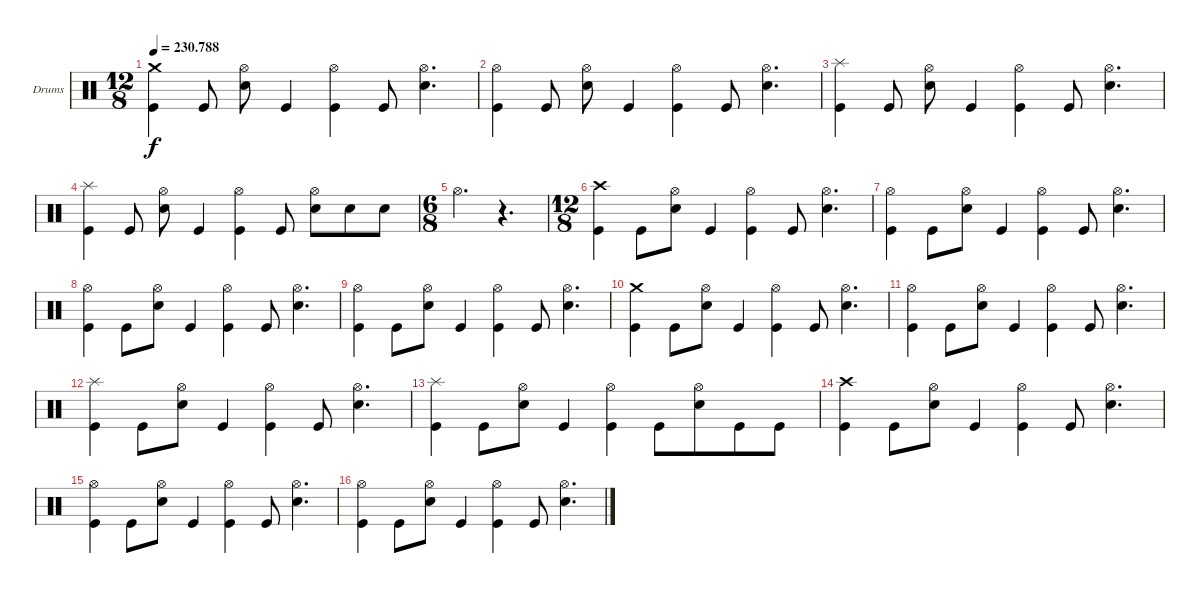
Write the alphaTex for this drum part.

\bracketExtendMode groupsimilarinstruments
\firstSystemTrackNameOrientation horizontal
\otherSystemsTrackNameOrientation horizontal
\track ("Ударные" "Drums") {instrument percussion}
\staff {score}
\articulation defaults
\ts (12 8)
\tempo
230.788
\accidentals auto
\clef neutral
\ottava regular
\simile none
\ks c
("Kick (hit)" "Crash medium (hit)").4{dy f} "Kick (hit)".8 ("Snare (hit) 2" "Hi-Hat (open)").8 "Kick (hit)".4 ("Kick (hit)" "Hi-Hat (open)").4 "Kick (hit)".8 ("Snare (hit) 2" "Hi-Hat (open)").4{d} |
("Hi-Hat (open)" "Kick (hit)").4 "Kick (hit)".8 ("Hi-Hat (open)" "Snare (hit) 2").8 "Kick (hit)".4 ("Hi-Hat (open)" "Kick (hit)").4 "Kick (hit)".8 ("Hi-Hat (open)" "Snare (hit) 2").4{d} |
("Splash (hit)" "Kick (hit)").4 "Kick (hit)".8 ("Hi-Hat (open)" "Snare (hit) 2").8 "Kick (hit)".4 ("Hi-Hat (open)" "Kick (hit)").4 "Kick (hit)".8 ("Hi-Hat (open)" "Snare (hit) 2").4{d} |
("Splash (hit)" "Kick (hit)").4 "Kick (hit)".8 ("Hi-Hat (open)" "Snare (hit) 2").8 "Kick (hit)".4 ("Hi-Hat (open)" "Kick (hit)").4 "Kick (hit)".8 ("Snare (hit) 2" "Hi-Hat (open)").8 "Snare (hit) 2".8 "Snare (hit) 2".8 |
\ts (6 8)
\beaming (8 2 2 2 2)
"Hi-Hat (open)".4{d} r.4{d} |
\ts (12 8)
\beaming (8 2 2 2 6)
("Kick (hit)" "Crash high (hit)").4 "Kick (hit)".8 ("Snare (hit) 2" "Hi-Hat (open)").8 "Kick (hit)".4 ("Kick (hit)" "Hi-Hat (open)").4 "Kick (hit)".8 ("Snare (hit) 2" "Hi-Hat (open)").4{d} |
("Hi-Hat (open)" "Kick (hit)").4 "Kick (hit)".8 ("Hi-Hat (open)" "Snare (hit) 2").8 "Kick (hit)".4 ("Hi-Hat (open)" "Kick (hit)").4 "Kick (hit)".8 ("Hi-Hat (open)" "Snare (hit) 2").4{d} |
("Hi-Hat (open)" "Kick (hit)").4 "Kick (hit)".8 ("Hi-Hat (open)" "Snare (hit) 2").8 "Kick (hit)".4 ("Hi-Hat (open)" "Kick (hit)").4 "Kick (hit)".8 ("Hi-Hat (open)" "Snare (hit) 2").4{d} |
("Hi-Hat (open)" "Kick (hit)").4 "Kick (hit)".8 ("Hi-Hat (open)" "Snare (hit) 2").8 "Kick (hit)".4 ("Hi-Hat (open)" "Kick (hit)").4 "Kick (hit)".8 ("Hi-Hat (open)" "Snare (hit) 2").4{d} |
("Kick (hit)" "Crash medium (hit)").4 "Kick (hit)".8 ("Snare (hit) 2" "Hi-Hat (open)").8 "Kick (hit)".4 ("Kick (hit)" "Hi-Hat (open)").4 "Kick (hit)".8 ("Snare (hit) 2" "Hi-Hat (open)").4{d} |
("Hi-Hat (open)" "Kick (hit)").4 "Kick (hit)".8 ("Hi-Hat (open)" "Snare (hit) 2").8 "Kick (hit)".4 ("Hi-Hat (open)" "Kick (hit)").4 "Kick (hit)".8 ("Hi-Hat (open)" "Snare (hit) 2").4{d} |
("Splash (hit)" "Kick (hit)").4 "Kick (hit)".8 ("Hi-Hat (open)" "Snare (hit) 2").8 "Kick (hit)".4 ("Hi-Hat (open)" "Kick (hit)").4 "Kick (hit)".8 ("Hi-Hat (open)" "Snare (hit) 2").4{d} |
("Splash (hit)" "Kick (hit)").4 "Kick (hit)".8 ("Hi-Hat (open)" "Snare (hit) 2").8 "Kick (hit)".4 ("Hi-Hat (open)" "Kick (hit)").4 "Kick (hit)".8 ("Snare (hit) 2" "Hi-Hat (open)").8 "Kick (hit)".8 "Kick (hit)".8 |
("Kick (hit)" "Crash high (hit)").4 "Kick (hit)".8 ("Snare (hit) 2" "Hi-Hat (open)").8 "Kick (hit)".4 ("Kick (hit)" "Hi-Hat (open)").4 "Kick (hit)".8 ("Snare (hit) 2" "Hi-Hat (open)").4{d} |
("Hi-Hat (open)" "Kick (hit)").4 "Kick (hit)".8 ("Hi-Hat (open)" "Snare (hit) 2").8 "Kick (hit)".4 ("Hi-Hat (open)" "Kick (hit)").4 "Kick (hit)".8 ("Hi-Hat (open)" "Snare (hit) 2").4{d} |
("Hi-Hat (open)" "Kick (hit)").4 "Kick (hit)".8 ("Hi-Hat (open)" "Snare (hit) 2").8 "Kick (hit)".4 ("Hi-Hat (open)" "Kick (hit)").4 "Kick (hit)".8 ("Hi-Hat (open)" "Snare (hit) 2").4{d}
